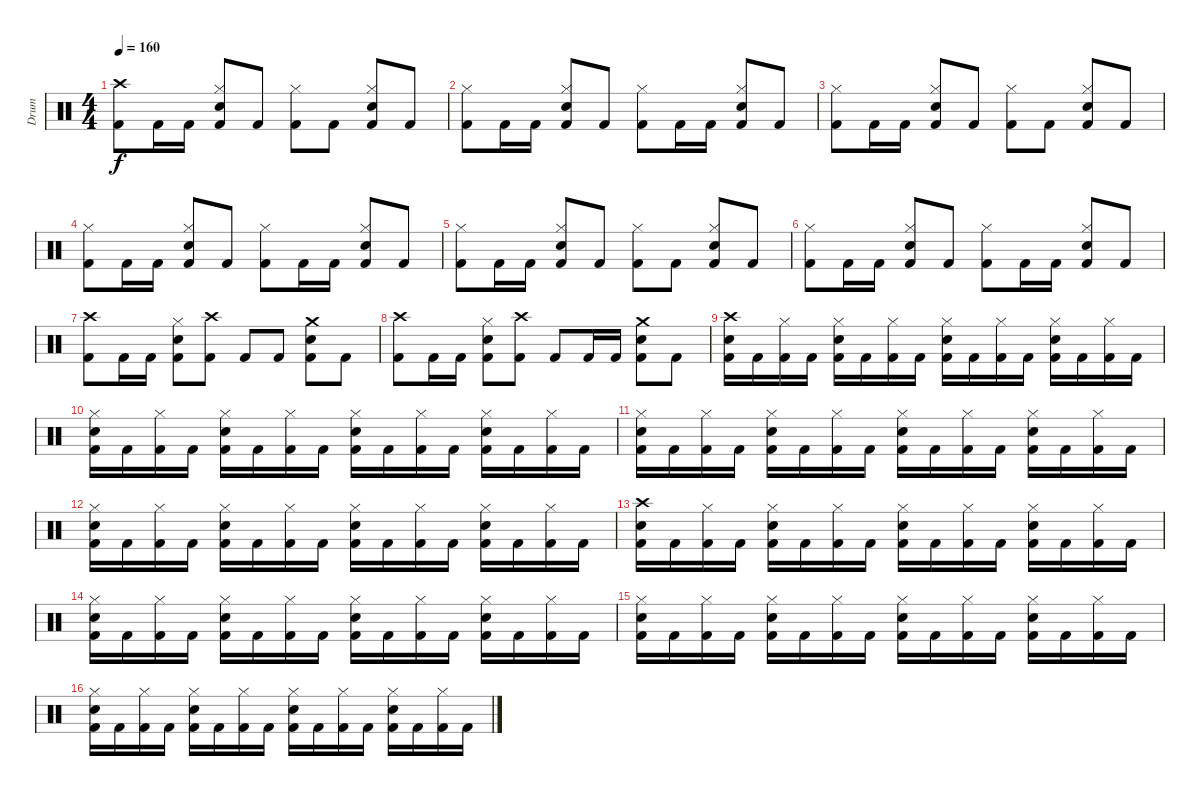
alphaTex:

\track ("Drum" "Drum") {instrument percussion}
\staff {score}
\articulation defaults
\ts (4 4)
\tempo 160
\clef neutral
\ks c
("Crash high (hit)" "Kick (hit) 2").8{dy f} "Kick (hit) 2".16 "Kick (hit) 2".16 ("Hi-Hat (closed)" "Electric Snare (hit)" "Kick (hit) 2").8 "Kick (hit) 2".8 ("Hi-Hat (closed)" "Kick (hit) 2").8 "Kick (hit) 2".8 ("Hi-Hat (closed)" "Electric Snare (hit)" "Kick (hit) 2").8 "Kick (hit) 2".8 |
("Hi-Hat (closed)" "Kick (hit) 2").8 "Kick (hit) 2".16 "Kick (hit) 2".16 ("Hi-Hat (closed)" "Electric Snare (hit)" "Kick (hit) 2").8 "Kick (hit) 2".8 ("Hi-Hat (closed)" "Kick (hit) 2").8 "Kick (hit) 2".16 "Kick (hit) 2".16 ("Hi-Hat (closed)" "Electric Snare (hit)" "Kick (hit) 2").8 "Kick (hit) 2".8 |
("Hi-Hat (closed)" "Kick (hit) 2").8 "Kick (hit) 2".16 "Kick (hit) 2".16 ("Hi-Hat (closed)" "Electric Snare (hit)" "Kick (hit) 2").8 "Kick (hit) 2".8 ("Hi-Hat (closed)" "Kick (hit) 2").8 "Kick (hit) 2".8 ("Hi-Hat (closed)" "Electric Snare (hit)" "Kick (hit) 2").8 "Kick (hit) 2".8 |
("Hi-Hat (closed)" "Kick (hit) 2").8 "Kick (hit) 2".16 "Kick (hit) 2".16 ("Hi-Hat (closed)" "Electric Snare (hit)" "Kick (hit) 2").8 "Kick (hit) 2".8 ("Hi-Hat (closed)" "Kick (hit) 2").8 "Kick (hit) 2".16 "Kick (hit) 2".16 ("Hi-Hat (closed)" "Electric Snare (hit)" "Kick (hit) 2").8 "Kick (hit) 2".8 |
("Hi-Hat (closed)" "Kick (hit) 2").8 "Kick (hit) 2".16 "Kick (hit) 2".16 ("Hi-Hat (closed)" "Electric Snare (hit)" "Kick (hit) 2").8 "Kick (hit) 2".8 ("Hi-Hat (closed)" "Kick (hit) 2").8 "Kick (hit) 2".8 ("Hi-Hat (closed)" "Electric Snare (hit)" "Kick (hit) 2").8 "Kick (hit) 2".8 |
("Hi-Hat (closed)" "Kick (hit) 2").8 "Kick (hit) 2".16 "Kick (hit) 2".16 ("Hi-Hat (closed)" "Electric Snare (hit)" "Kick (hit) 2").8 "Kick (hit) 2".8 ("Hi-Hat (closed)" "Kick (hit) 2").8 "Kick (hit) 2".16 "Kick (hit) 2".16 ("Hi-Hat (closed)" "Electric Snare (hit)" "Kick (hit) 2").8 "Kick (hit) 2".8 |
("Crash high (hit)" "Kick (hit) 2").8 "Kick (hit) 2".16 "Kick (hit) 2".16 ("Hi-Hat (closed)" "Electric Snare (hit)" "Kick (hit) 2").8 ("Crash high (hit)" "Kick (hit) 2").8 "Kick (hit) 2".8 "Kick (hit) 2".8 ("Crash medium (hit)" "Electric Snare (hit)" "Kick (hit) 2").8 "Kick (hit) 2".8 |
("Crash high (hit)" "Kick (hit) 2").8 "Kick (hit) 2".16 "Kick (hit) 2".16 ("Hi-Hat (closed)" "Electric Snare (hit)" "Kick (hit) 2").8 ("Crash high (hit)" "Kick (hit) 2").8 "Kick (hit) 2".8 "Kick (hit) 2".16 "Kick (hit) 2".16 ("Crash medium (hit)" "Electric Snare (hit)" "Kick (hit) 2").8 "Kick (hit) 2".8 |
("Crash high (hit)" "Electric Snare (hit)" "Kick (hit) 2").16 "Kick (hit) 2".16 ("Hi-Hat (closed)" "Kick (hit) 2").16 "Kick (hit) 2".16 ("Hi-Hat (closed)" "Electric Snare (hit)" "Kick (hit) 2").16 "Kick (hit) 2".16 ("Hi-Hat (closed)" "Kick (hit) 2").16 "Kick (hit) 2".16 ("Hi-Hat (closed)" "Electric Snare (hit)" "Kick (hit) 2").16 "Kick (hit) 2".16 ("Hi-Hat (closed)" "Kick (hit) 2").16 "Kick (hit) 2".16 ("Hi-Hat (closed)" "Electric Snare (hit)" "Kick (hit) 2").16 "Kick (hit) 2".16 ("Hi-Hat (closed)" "Kick (hit) 2").16 "Kick (hit) 2".16 |
("Hi-Hat (closed)" "Electric Snare (hit)" "Kick (hit) 2").16 "Kick (hit) 2".16 ("Hi-Hat (closed)" "Kick (hit) 2").16 "Kick (hit) 2".16 ("Hi-Hat (closed)" "Electric Snare (hit)" "Kick (hit) 2").16 "Kick (hit) 2".16 ("Hi-Hat (closed)" "Kick (hit) 2").16 "Kick (hit) 2".16 ("Hi-Hat (closed)" "Electric Snare (hit)" "Kick (hit) 2").16 "Kick (hit) 2".16 ("Hi-Hat (closed)" "Kick (hit) 2").16 "Kick (hit) 2".16 ("Hi-Hat (closed)" "Electric Snare (hit)" "Kick (hit) 2").16 "Kick (hit) 2".16 ("Hi-Hat (closed)" "Kick (hit) 2").16 "Kick (hit) 2".16 |
("Hi-Hat (closed)" "Electric Snare (hit)" "Kick (hit) 2").16 "Kick (hit) 2".16 ("Hi-Hat (closed)" "Kick (hit) 2").16 "Kick (hit) 2".16 ("Hi-Hat (closed)" "Electric Snare (hit)" "Kick (hit) 2").16 "Kick (hit) 2".16 ("Hi-Hat (closed)" "Kick (hit) 2").16 "Kick (hit) 2".16 ("Hi-Hat (closed)" "Electric Snare (hit)" "Kick (hit) 2").16 "Kick (hit) 2".16 ("Hi-Hat (closed)" "Kick (hit) 2").16 "Kick (hit) 2".16 ("Hi-Hat (closed)" "Electric Snare (hit)" "Kick (hit) 2").16 "Kick (hit) 2".16 ("Hi-Hat (closed)" "Kick (hit) 2").16 "Kick (hit) 2".16 |
("Hi-Hat (closed)" "Electric Snare (hit)" "Kick (hit) 2").16 "Kick (hit) 2".16 ("Hi-Hat (closed)" "Kick (hit) 2").16 "Kick (hit) 2".16 ("Hi-Hat (closed)" "Electric Snare (hit)" "Kick (hit) 2").16 "Kick (hit) 2".16 ("Hi-Hat (closed)" "Kick (hit) 2").16 "Kick (hit) 2".16 ("Hi-Hat (closed)" "Electric Snare (hit)" "Kick (hit) 2").16 "Kick (hit) 2".16 ("Hi-Hat (closed)" "Kick (hit) 2").16 "Kick (hit) 2".16 ("Hi-Hat (closed)" "Electric Snare (hit)" "Kick (hit) 2").16 "Kick (hit) 2".16 ("Hi-Hat (closed)" "Kick (hit) 2").16 "Kick (hit) 2".16 |
("Crash high (hit)" "Electric Snare (hit)" "Kick (hit) 2").16 "Kick (hit) 2".16 ("Hi-Hat (closed)" "Kick (hit) 2").16 "Kick (hit) 2".16 ("Hi-Hat (closed)" "Electric Snare (hit)" "Kick (hit) 2").16 "Kick (hit) 2".16 ("Hi-Hat (closed)" "Kick (hit) 2").16 "Kick (hit) 2".16 ("Hi-Hat (closed)" "Electric Snare (hit)" "Kick (hit) 2").16 "Kick (hit) 2".16 ("Hi-Hat (closed)" "Kick (hit) 2").16 "Kick (hit) 2".16 ("Hi-Hat (closed)" "Electric Snare (hit)" "Kick (hit) 2").16 "Kick (hit) 2".16 ("Hi-Hat (closed)" "Kick (hit) 2").16 "Kick (hit) 2".16 |
("Hi-Hat (closed)" "Electric Snare (hit)" "Kick (hit) 2").16 "Kick (hit) 2".16 ("Hi-Hat (closed)" "Kick (hit) 2").16 "Kick (hit) 2".16 ("Hi-Hat (closed)" "Electric Snare (hit)" "Kick (hit) 2").16 "Kick (hit) 2".16 ("Hi-Hat (closed)" "Kick (hit) 2").16 "Kick (hit) 2".16 ("Hi-Hat (closed)" "Electric Snare (hit)" "Kick (hit) 2").16 "Kick (hit) 2".16 ("Hi-Hat (closed)" "Kick (hit) 2").16 "Kick (hit) 2".16 ("Hi-Hat (closed)" "Electric Snare (hit)" "Kick (hit) 2").16 "Kick (hit) 2".16 ("Hi-Hat (closed)" "Kick (hit) 2").16 "Kick (hit) 2".16 |
("Hi-Hat (closed)" "Electric Snare (hit)" "Kick (hit) 2").16 "Kick (hit) 2".16 ("Hi-Hat (closed)" "Kick (hit) 2").16 "Kick (hit) 2".16 ("Hi-Hat (closed)" "Electric Snare (hit)" "Kick (hit) 2").16 "Kick (hit) 2".16 ("Hi-Hat (closed)" "Kick (hit) 2").16 "Kick (hit) 2".16 ("Hi-Hat (closed)" "Electric Snare (hit)" "Kick (hit) 2").16 "Kick (hit) 2".16 ("Hi-Hat (closed)" "Kick (hit) 2").16 "Kick (hit) 2".16 ("Hi-Hat (closed)" "Electric Snare (hit)" "Kick (hit) 2").16 "Kick (hit) 2".16 ("Hi-Hat (closed)" "Kick (hit) 2").16 "Kick (hit) 2".16 |
("Hi-Hat (closed)" "Electric Snare (hit)" "Kick (hit) 2").16 "Kick (hit) 2".16 ("Hi-Hat (closed)" "Kick (hit) 2").16 "Kick (hit) 2".16 ("Hi-Hat (closed)" "Electric Snare (hit)" "Kick (hit) 2").16 "Kick (hit) 2".16 ("Hi-Hat (closed)" "Kick (hit) 2").16 "Kick (hit) 2".16 ("Hi-Hat (closed)" "Electric Snare (hit)" "Kick (hit) 2").16 "Kick (hit) 2".16 ("Hi-Hat (closed)" "Kick (hit) 2").16 "Kick (hit) 2".16 ("Hi-Hat (closed)" "Electric Snare (hit)" "Kick (hit) 2").16 "Kick (hit) 2".16 ("Hi-Hat (closed)" "Kick (hit) 2").16 "Kick (hit) 2".16
